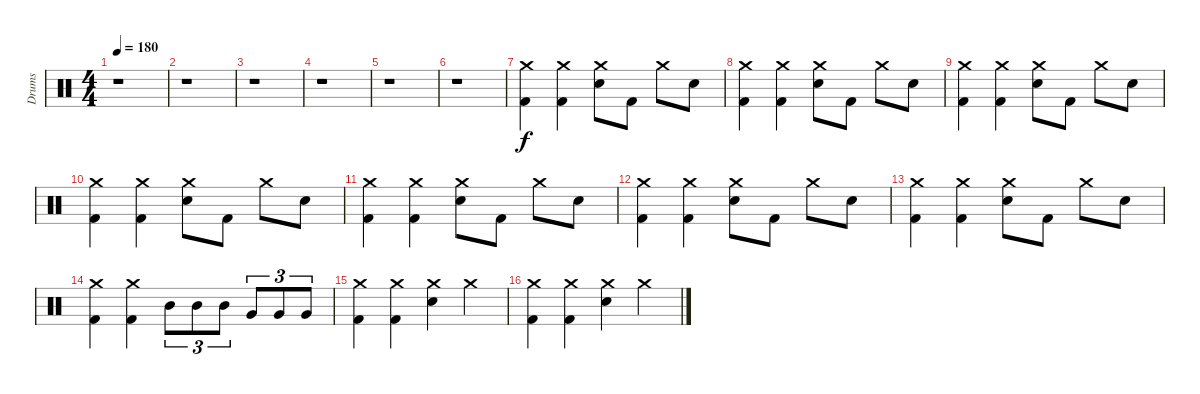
\track ("Drums" "Drums") {instrument percussion}
\staff {score}
\articulation defaults
\ts (4 4)
\tempo 180
\clef neutral
\ks c
r.1{dy f} |
r.1 |
r.1 |
r.1 |
r.1 |
r.1 |
("Crash medium (hit)" "Kick (hit) 2").4 ("Crash medium (hit)" "Kick (hit) 2").4 ("Crash medium (hit)" "Snare (hit) 2").8 "Kick (hit) 2".8 "Crash medium (hit)".8 "Snare (hit) 2".8 |
("Crash medium (hit)" "Kick (hit) 2").4 ("Crash medium (hit)" "Kick (hit) 2").4 ("Crash medium (hit)" "Snare (hit) 2").8 "Kick (hit) 2".8 "Crash medium (hit)".8 "Snare (hit) 2".8 |
("Crash medium (hit)" "Kick (hit) 2").4 ("Crash medium (hit)" "Kick (hit) 2").4 ("Crash medium (hit)" "Snare (hit) 2").8 "Kick (hit) 2".8 "Crash medium (hit)".8 "Snare (hit) 2".8 |
("Crash medium (hit)" "Kick (hit) 2").4 ("Crash medium (hit)" "Kick (hit) 2").4 ("Crash medium (hit)" "Snare (hit) 2").8 "Kick (hit) 2".8 "Crash medium (hit)".8 "Snare (hit) 2".8 |
("Crash medium (hit)" "Kick (hit) 2").4 ("Crash medium (hit)" "Kick (hit) 2").4 ("Crash medium (hit)" "Snare (hit) 2").8 "Kick (hit) 2".8 "Crash medium (hit)".8 "Snare (hit) 2".8 |
("Crash medium (hit)" "Kick (hit) 2").4 ("Crash medium (hit)" "Kick (hit) 2").4 ("Crash medium (hit)" "Snare (hit) 2").8 "Kick (hit) 2".8 "Crash medium (hit)".8 "Snare (hit) 2".8 |
("Crash medium (hit)" "Kick (hit) 2").4 ("Crash medium (hit)" "Kick (hit) 2").4 ("Crash medium (hit)" "Snare (hit) 2").8 "Kick (hit) 2".8 "Crash medium (hit)".8 "Snare (hit) 2".8 |
("Crash medium (hit)" "Kick (hit) 2").4 ("Crash medium (hit)" "Kick (hit) 2").4 "Mid Tom (hit)".8{tu (3 2)} "Mid Tom (hit)".8{tu (3 2)} "Mid Tom (hit)".8{tu (3 2)} "Very Low Tom (hit)".8{tu (3 2)} "Very Low Tom (hit)".8{tu (3 2)} "Very Low Tom (hit)".8{tu (3 2)} |
("Crash medium (hit)" "Kick (hit) 2").4 ("Crash medium (hit)" "Kick (hit) 2").4 ("Crash medium (hit)" "Snare (hit) 2").4 "Crash medium (hit)".4 |
("Crash medium (hit)" "Kick (hit) 2").4 ("Crash medium (hit)" "Kick (hit) 2").4 ("Crash medium (hit)" "Snare (hit) 2").4 "Crash medium (hit)".4
